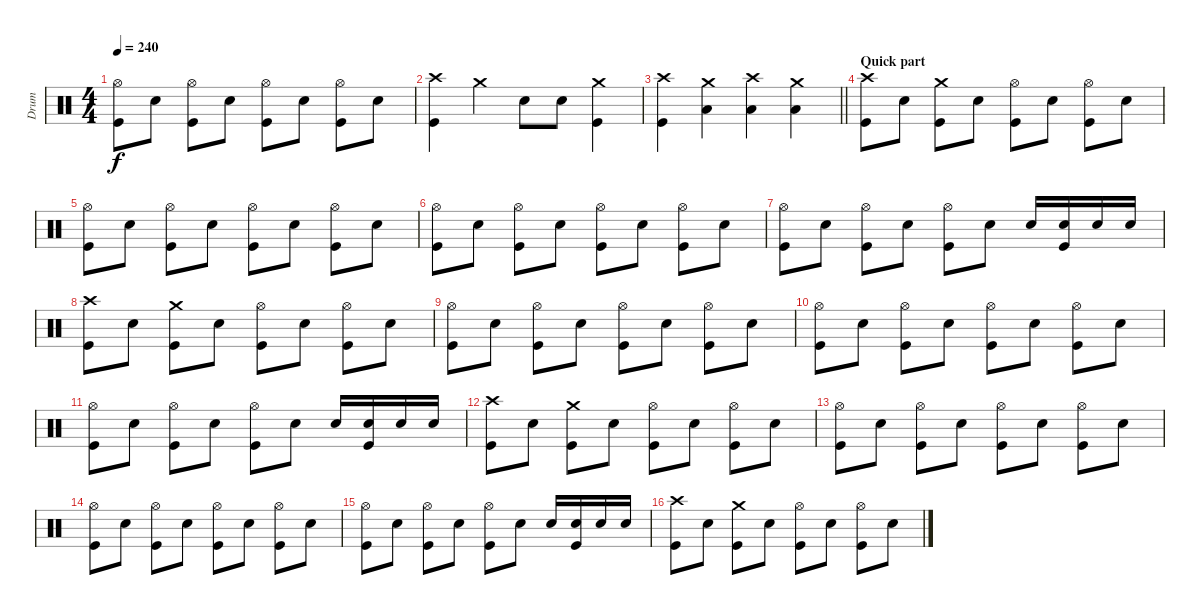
\track ("Drum" "Drum") {instrument percussion}
\staff {score}
\articulation defaults
\ts (4 4)
\tempo 240
\clef neutral
\ks c
("Hi-Hat (open)" "Kick (hit)").8{dy f} "Snare (hit) 2".8 ("Hi-Hat (open)" "Kick (hit)").8 "Snare (hit) 2".8 ("Hi-Hat (open)" "Kick (hit)").8 "Snare (hit) 2".8 ("Hi-Hat (open)" "Kick (hit)").8 "Snare (hit) 2".8 |
("Crash high (hit)" "Kick (hit)").4 "Crash medium (hit)".4 "Snare (hit) 2".8 "Snare (hit) 2".8 ("Crash medium (hit)" "Kick (hit)").4 |
\barLineRight lightlight
("Crash high (hit)" "Kick (hit)").4 ("Crash medium (hit)" "Low Floor Tom (hit)").4 ("Crash high (hit)" "Low Tom (hit)").4 ("Crash medium (hit)" "Low Floor Tom (hit)").4 |
\section ("" "Quick part")
("Crash high (hit)" "Kick (hit)").8 "Snare (hit) 2".8 ("Crash medium (hit)" "Kick (hit)").8 "Snare (hit) 2".8 ("Hi-Hat (open)" "Kick (hit)").8 "Snare (hit) 2".8 ("Hi-Hat (open)" "Kick (hit)").8 "Snare (hit) 2".8 |
("Hi-Hat (open)" "Kick (hit)").8 "Snare (hit) 2".8 ("Hi-Hat (open)" "Kick (hit)").8 "Snare (hit) 2".8 ("Hi-Hat (open)" "Kick (hit)").8 "Snare (hit) 2".8 ("Hi-Hat (open)" "Kick (hit)").8 "Snare (hit) 2".8 |
("Hi-Hat (open)" "Kick (hit)").8 "Snare (hit) 2".8 ("Hi-Hat (open)" "Kick (hit)").8 "Snare (hit) 2".8 ("Hi-Hat (open)" "Kick (hit)").8 "Snare (hit) 2".8 ("Hi-Hat (open)" "Kick (hit)").8 "Snare (hit) 2".8 |
("Hi-Hat (open)" "Kick (hit)").8 "Snare (hit) 2".8 ("Hi-Hat (open)" "Kick (hit)").8 "Snare (hit) 2".8 ("Hi-Hat (open)" "Kick (hit)").8 "Snare (hit) 2".8 "Snare (hit) 2".16 ("Snare (hit) 2" "Kick (hit)").16 "Snare (hit) 2".16 "Snare (hit) 2".16 |
("Crash high (hit)" "Kick (hit)").8 "Snare (hit) 2".8 ("Crash medium (hit)" "Kick (hit)").8 "Snare (hit) 2".8 ("Hi-Hat (open)" "Kick (hit)").8 "Snare (hit) 2".8 ("Hi-Hat (open)" "Kick (hit)").8 "Snare (hit) 2".8 |
("Hi-Hat (open)" "Kick (hit)").8 "Snare (hit) 2".8 ("Hi-Hat (open)" "Kick (hit)").8 "Snare (hit) 2".8 ("Hi-Hat (open)" "Kick (hit)").8 "Snare (hit) 2".8 ("Hi-Hat (open)" "Kick (hit)").8 "Snare (hit) 2".8 |
("Hi-Hat (open)" "Kick (hit)").8 "Snare (hit) 2".8 ("Hi-Hat (open)" "Kick (hit)").8 "Snare (hit) 2".8 ("Hi-Hat (open)" "Kick (hit)").8 "Snare (hit) 2".8 ("Hi-Hat (open)" "Kick (hit)").8 "Snare (hit) 2".8 |
("Hi-Hat (open)" "Kick (hit)").8 "Snare (hit) 2".8 ("Hi-Hat (open)" "Kick (hit)").8 "Snare (hit) 2".8 ("Hi-Hat (open)" "Kick (hit)").8 "Snare (hit) 2".8 "Snare (hit) 2".16 ("Snare (hit) 2" "Kick (hit)").16 "Snare (hit) 2".16 "Snare (hit) 2".16 |
("Crash high (hit)" "Kick (hit)").8 "Snare (hit) 2".8 ("Crash medium (hit)" "Kick (hit)").8 "Snare (hit) 2".8 ("Hi-Hat (open)" "Kick (hit)").8 "Snare (hit) 2".8 ("Hi-Hat (open)" "Kick (hit)").8 "Snare (hit) 2".8 |
("Hi-Hat (open)" "Kick (hit)").8 "Snare (hit) 2".8 ("Hi-Hat (open)" "Kick (hit)").8 "Snare (hit) 2".8 ("Hi-Hat (open)" "Kick (hit)").8 "Snare (hit) 2".8 ("Hi-Hat (open)" "Kick (hit)").8 "Snare (hit) 2".8 |
("Hi-Hat (open)" "Kick (hit)").8 "Snare (hit) 2".8 ("Hi-Hat (open)" "Kick (hit)").8 "Snare (hit) 2".8 ("Hi-Hat (open)" "Kick (hit)").8 "Snare (hit) 2".8 ("Hi-Hat (open)" "Kick (hit)").8 "Snare (hit) 2".8 |
("Hi-Hat (open)" "Kick (hit)").8 "Snare (hit) 2".8 ("Hi-Hat (open)" "Kick (hit)").8 "Snare (hit) 2".8 ("Hi-Hat (open)" "Kick (hit)").8 "Snare (hit) 2".8 "Snare (hit) 2".16 ("Snare (hit) 2" "Kick (hit)").16 "Snare (hit) 2".16 "Snare (hit) 2".16 |
("Crash high (hit)" "Kick (hit)").8 "Snare (hit) 2".8 ("Crash medium (hit)" "Kick (hit)").8 "Snare (hit) 2".8 ("Hi-Hat (open)" "Kick (hit)").8 "Snare (hit) 2".8 ("Hi-Hat (open)" "Kick (hit)").8 "Snare (hit) 2".8
